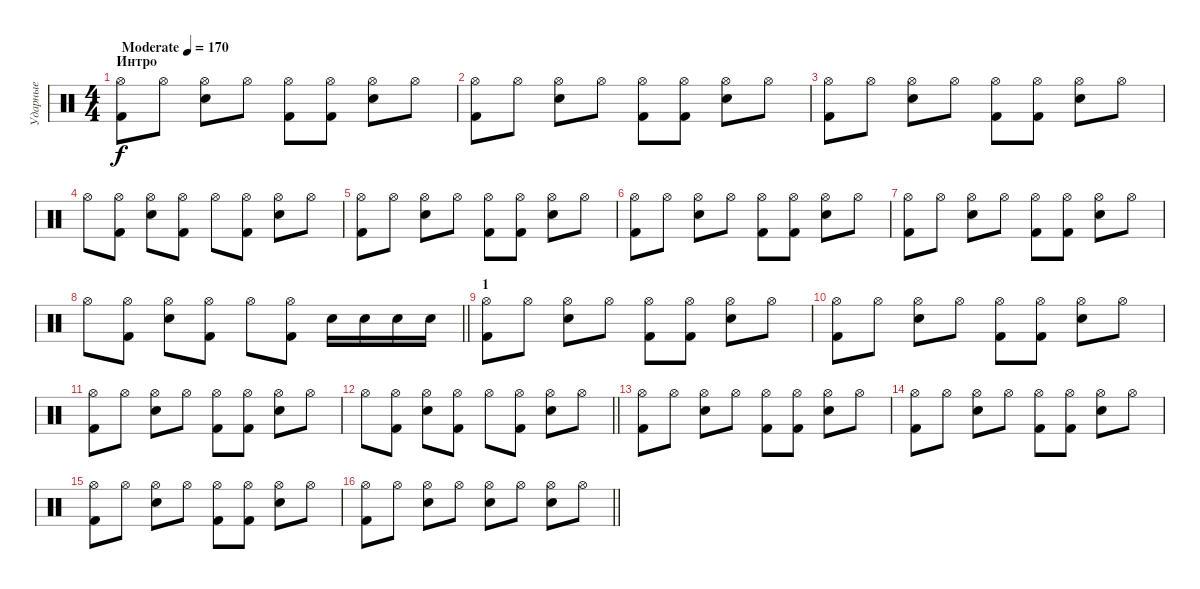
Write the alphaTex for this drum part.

\track ("Ударные" "Ударные") {instrument percussion}
\staff {score}
\articulation defaults
\ts (4 4)
\section ("" "Интро")
\tempo (170 "Moderate")
\clef neutral
\ks c
("Hi-Hat (open)" "Kick (hit) 2").8{dy f} "Hi-Hat (open)".8 ("Hi-Hat (open)" "Electric Snare (hit)").8 "Hi-Hat (open)".8 ("Hi-Hat (open)" "Kick (hit) 2").8 ("Hi-Hat (open)" "Kick (hit) 2").8 ("Hi-Hat (open)" "Electric Snare (hit)").8 "Hi-Hat (open)".8 |
("Hi-Hat (open)" "Kick (hit) 2").8 "Hi-Hat (open)".8 ("Hi-Hat (open)" "Electric Snare (hit)").8 "Hi-Hat (open)".8 ("Hi-Hat (open)" "Kick (hit) 2").8 ("Hi-Hat (open)" "Kick (hit) 2").8 ("Hi-Hat (open)" "Electric Snare (hit)").8 "Hi-Hat (open)".8 |
("Hi-Hat (open)" "Kick (hit) 2").8 "Hi-Hat (open)".8 ("Hi-Hat (open)" "Electric Snare (hit)").8 "Hi-Hat (open)".8 ("Hi-Hat (open)" "Kick (hit) 2").8 ("Hi-Hat (open)" "Kick (hit) 2").8 ("Hi-Hat (open)" "Electric Snare (hit)").8 "Hi-Hat (open)".8 |
"Hi-Hat (open)".8 ("Hi-Hat (open)" "Kick (hit) 2").8 ("Hi-Hat (open)" "Electric Snare (hit)").8 ("Hi-Hat (open)" "Kick (hit) 2").8 "Hi-Hat (open)".8 ("Hi-Hat (open)" "Kick (hit) 2").8 ("Hi-Hat (open)" "Electric Snare (hit)").8 "Hi-Hat (open)".8 |
("Hi-Hat (open)" "Kick (hit) 2").8 "Hi-Hat (open)".8 ("Hi-Hat (open)" "Electric Snare (hit)").8 "Hi-Hat (open)".8 ("Hi-Hat (open)" "Kick (hit) 2").8 ("Hi-Hat (open)" "Kick (hit) 2").8 ("Hi-Hat (open)" "Electric Snare (hit)").8 "Hi-Hat (open)".8 |
("Hi-Hat (open)" "Kick (hit) 2").8 "Hi-Hat (open)".8 ("Hi-Hat (open)" "Electric Snare (hit)").8 "Hi-Hat (open)".8 ("Hi-Hat (open)" "Kick (hit) 2").8 ("Hi-Hat (open)" "Kick (hit) 2").8 ("Hi-Hat (open)" "Electric Snare (hit)").8 "Hi-Hat (open)".8 |
("Hi-Hat (open)" "Kick (hit) 2").8 "Hi-Hat (open)".8 ("Hi-Hat (open)" "Electric Snare (hit)").8 "Hi-Hat (open)".8 ("Hi-Hat (open)" "Kick (hit) 2").8 ("Hi-Hat (open)" "Kick (hit) 2").8 ("Hi-Hat (open)" "Electric Snare (hit)").8 "Hi-Hat (open)".8 |
\barLineRight lightlight "Hi-Hat (open)".8
("Hi-Hat (open)" "Kick (hit) 2").8 ("Hi-Hat (open)" "Electric Snare (hit)").8 ("Hi-Hat (open)" "Kick (hit) 2").8 "Hi-Hat (open)".8 ("Hi-Hat (open)" "Kick (hit) 2").8 "Electric Snare (hit)".16 "Electric Snare (hit)".16 "Electric Snare (hit)".16 "Electric Snare (hit)".16 |
\section ("" "1")
("Hi-Hat (open)" "Kick (hit) 2").8 "Hi-Hat (open)".8 ("Hi-Hat (open)" "Electric Snare (hit)").8 "Hi-Hat (open)".8 ("Hi-Hat (open)" "Kick (hit) 2").8 ("Hi-Hat (open)" "Kick (hit) 2").8 ("Hi-Hat (open)" "Electric Snare (hit)").8 "Hi-Hat (open)".8 |
("Hi-Hat (open)" "Kick (hit) 2").8 "Hi-Hat (open)".8 ("Hi-Hat (open)" "Electric Snare (hit)").8 "Hi-Hat (open)".8 ("Hi-Hat (open)" "Kick (hit) 2").8 ("Hi-Hat (open)" "Kick (hit) 2").8 ("Hi-Hat (open)" "Electric Snare (hit)").8 "Hi-Hat (open)".8 |
("Hi-Hat (open)" "Kick (hit) 2").8 "Hi-Hat (open)".8 ("Hi-Hat (open)" "Electric Snare (hit)").8 "Hi-Hat (open)".8 ("Hi-Hat (open)" "Kick (hit) 2").8 ("Hi-Hat (open)" "Kick (hit) 2").8 ("Hi-Hat (open)" "Electric Snare (hit)").8 "Hi-Hat (open)".8 |
\barLineRight lightlight "Hi-Hat (open)".8
("Hi-Hat (open)" "Kick (hit) 2").8 ("Hi-Hat (open)" "Electric Snare (hit)").8 ("Hi-Hat (open)" "Kick (hit) 2").8 "Hi-Hat (open)".8 ("Hi-Hat (open)" "Kick (hit) 2").8 ("Hi-Hat (open)" "Electric Snare (hit)").8 "Hi-Hat (open)".8 |
("Hi-Hat (open)" "Kick (hit) 2").8 "Hi-Hat (open)".8 ("Hi-Hat (open)" "Electric Snare (hit)").8 "Hi-Hat (open)".8 ("Hi-Hat (open)" "Kick (hit) 2").8 ("Hi-Hat (open)" "Kick (hit) 2").8 ("Hi-Hat (open)" "Electric Snare (hit)").8 "Hi-Hat (open)".8 |
("Hi-Hat (open)" "Kick (hit) 2").8 "Hi-Hat (open)".8 ("Hi-Hat (open)" "Electric Snare (hit)").8 "Hi-Hat (open)".8 ("Hi-Hat (open)" "Kick (hit) 2").8 ("Hi-Hat (open)" "Kick (hit) 2").8 ("Hi-Hat (open)" "Electric Snare (hit)").8 "Hi-Hat (open)".8 |
("Hi-Hat (open)" "Kick (hit) 2").8 "Hi-Hat (open)".8 ("Hi-Hat (open)" "Electric Snare (hit)").8 "Hi-Hat (open)".8 ("Hi-Hat (open)" "Kick (hit) 2").8 ("Hi-Hat (open)" "Kick (hit) 2").8 ("Hi-Hat (open)" "Electric Snare (hit)").8 "Hi-Hat (open)".8 |
\barLineRight lightlight
("Hi-Hat (open)" "Kick (hit) 2").8 "Hi-Hat (open)".8 ("Hi-Hat (open)" "Electric Snare (hit)").8 "Hi-Hat (open)".8 ("Hi-Hat (open)" "Electric Snare (hit)").8 "Hi-Hat (open)".8 ("Hi-Hat (open)" "Electric Snare (hit)").8 "Hi-Hat (open)".8
